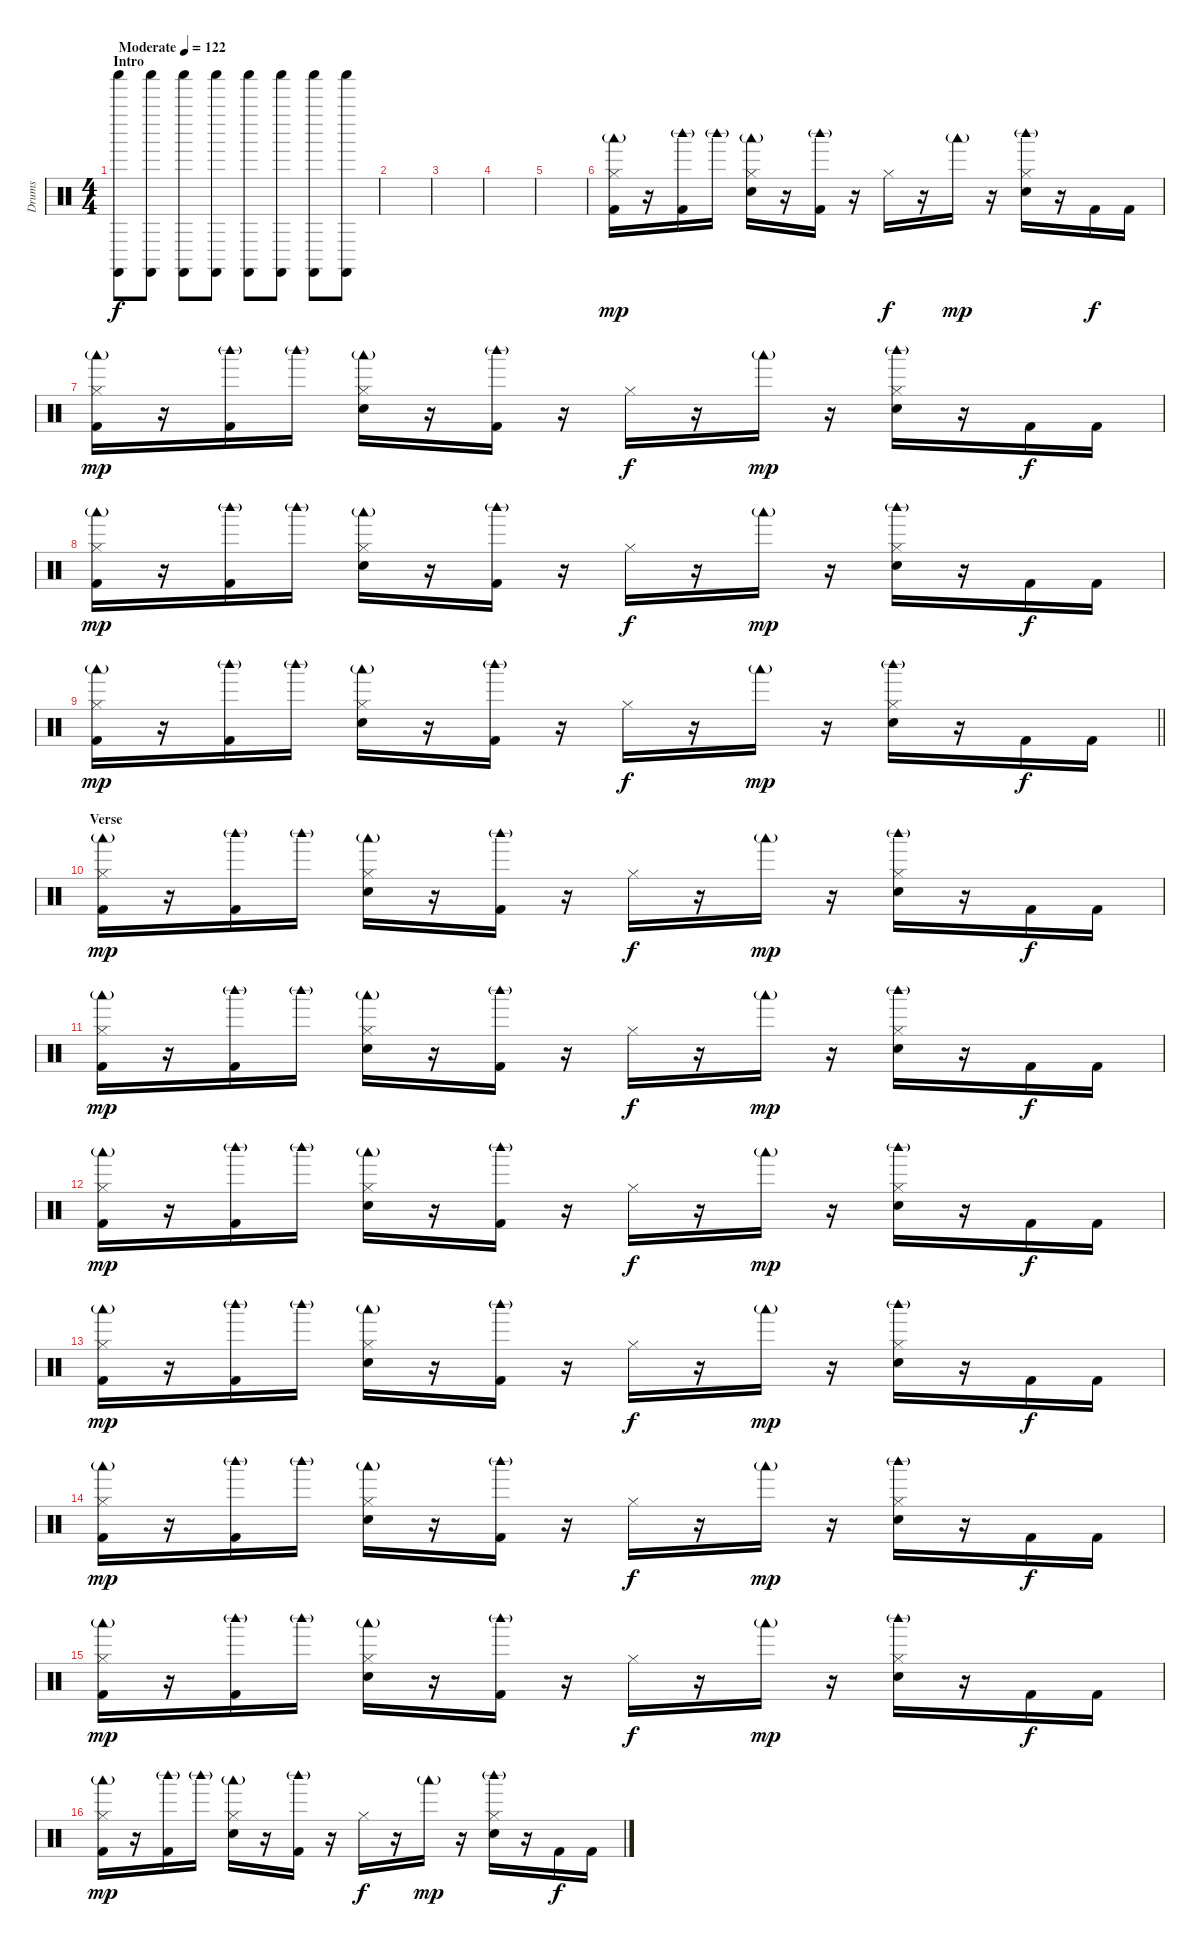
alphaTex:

\track ("Drums" "Drums") {instrument percussion}
\staff {score}
\articulation defaults
\ts (4 4)
\section ("" "Intro")
\tempo (122 "Moderate")
\clef neutral
\ks c
("Shaker (hit)" "Castanets (hit)").8{dy f} ("Shaker (hit)" "Castanets (hit)").8 ("Shaker (hit)" "Castanets (hit)").8 ("Shaker (hit)" "Castanets (hit)").8 ("Shaker (hit)" "Castanets (hit)").8 ("Shaker (hit)" "Castanets (hit)").8 ("Shaker (hit)" "Castanets (hit)").8 ("Shaker (hit)" "Castanets (hit)").8 |
|
|
|
|
("Hi-Hat (closed)" "Woodblock low (hit)"{g} "Kick (hit) 2").16{dy mp} r.16 ("Woodblock high (hit)"{g} "Kick (hit) 2").16 "Woodblock high (hit)"{g}.16 ("Hi-Hat (closed)" "Hand Clap (hit)" "Woodblock low (hit)"{g}).16 r.16 ("Woodblock high (hit)"{g} "Kick (hit) 2").16 r.16 "Hi-Hat (closed)".16{dy f} r.16 "Woodblock low (hit)"{g}.16{dy mp} r.16 ("Hi-Hat (closed)" "Hand Clap (hit)" "Woodblock high (hit)"{g}).16 r.16 "Kick (hit) 2".16{dy f} "Kick (hit) 2".16 |
("Hi-Hat (closed)" "Woodblock low (hit)"{g} "Kick (hit) 2").16{dy mp} r.16 ("Woodblock high (hit)"{g} "Kick (hit) 2").16 "Woodblock high (hit)"{g}.16 ("Hi-Hat (closed)" "Hand Clap (hit)" "Woodblock low (hit)"{g}).16 r.16 ("Woodblock high (hit)"{g} "Kick (hit) 2").16 r.16 "Hi-Hat (closed)".16{dy f} r.16 "Woodblock low (hit)"{g}.16{dy mp} r.16 ("Hi-Hat (closed)" "Hand Clap (hit)" "Woodblock high (hit)"{g}).16 r.16 "Kick (hit) 2".16{dy f} "Kick (hit) 2".16 |
("Hi-Hat (closed)" "Woodblock low (hit)"{g} "Kick (hit) 2").16{dy mp} r.16 ("Woodblock high (hit)"{g} "Kick (hit) 2").16 "Woodblock high (hit)"{g}.16 ("Hi-Hat (closed)" "Hand Clap (hit)" "Woodblock low (hit)"{g}).16 r.16 ("Woodblock high (hit)"{g} "Kick (hit) 2").16 r.16 "Hi-Hat (closed)".16{dy f} r.16 "Woodblock low (hit)"{g}.16{dy mp} r.16 ("Hi-Hat (closed)" "Hand Clap (hit)" "Woodblock high (hit)"{g}).16 r.16 "Kick (hit) 2".16{dy f} "Kick (hit) 2".16 |
\barLineRight lightlight
("Hi-Hat (closed)" "Woodblock low (hit)"{g} "Kick (hit) 2").16{dy mp} r.16 ("Woodblock high (hit)"{g} "Kick (hit) 2").16 "Woodblock high (hit)"{g}.16 ("Hi-Hat (closed)" "Hand Clap (hit)" "Woodblock low (hit)"{g}).16 r.16 ("Woodblock high (hit)"{g} "Kick (hit) 2").16 r.16 "Hi-Hat (closed)".16{dy f} r.16 "Woodblock low (hit)"{g}.16{dy mp} r.16 ("Hi-Hat (closed)" "Hand Clap (hit)" "Woodblock high (hit)"{g}).16 r.16 "Kick (hit) 2".16{dy f} "Kick (hit) 2".16 |
\section ("" "Verse")
("Hi-Hat (closed)" "Woodblock low (hit)"{g} "Kick (hit) 2").16{dy mp} r.16 ("Woodblock high (hit)"{g} "Kick (hit) 2").16 "Woodblock high (hit)"{g}.16 ("Hi-Hat (closed)" "Hand Clap (hit)" "Woodblock low (hit)"{g}).16 r.16 ("Woodblock high (hit)"{g} "Kick (hit) 2").16 r.16 "Hi-Hat (closed)".16{dy f} r.16 "Woodblock low (hit)"{g}.16{dy mp} r.16 ("Hi-Hat (closed)" "Hand Clap (hit)" "Woodblock high (hit)"{g}).16 r.16 "Kick (hit) 2".16{dy f} "Kick (hit) 2".16 |
("Hi-Hat (closed)" "Woodblock low (hit)"{g} "Kick (hit) 2").16{dy mp} r.16 ("Woodblock high (hit)"{g} "Kick (hit) 2").16 "Woodblock high (hit)"{g}.16 ("Hi-Hat (closed)" "Hand Clap (hit)" "Woodblock low (hit)"{g}).16 r.16 ("Woodblock high (hit)"{g} "Kick (hit) 2").16 r.16 "Hi-Hat (closed)".16{dy f} r.16 "Woodblock low (hit)"{g}.16{dy mp} r.16 ("Hi-Hat (closed)" "Hand Clap (hit)" "Woodblock high (hit)"{g}).16 r.16 "Kick (hit) 2".16{dy f} "Kick (hit) 2".16 |
("Hi-Hat (closed)" "Woodblock low (hit)"{g} "Kick (hit) 2").16{dy mp} r.16 ("Woodblock high (hit)"{g} "Kick (hit) 2").16 "Woodblock high (hit)"{g}.16 ("Hi-Hat (closed)" "Hand Clap (hit)" "Woodblock low (hit)"{g}).16 r.16 ("Woodblock high (hit)"{g} "Kick (hit) 2").16 r.16 "Hi-Hat (closed)".16{dy f} r.16 "Woodblock low (hit)"{g}.16{dy mp} r.16 ("Hi-Hat (closed)" "Hand Clap (hit)" "Woodblock high (hit)"{g}).16 r.16 "Kick (hit) 2".16{dy f} "Kick (hit) 2".16 |
("Hi-Hat (closed)" "Woodblock low (hit)"{g} "Kick (hit) 2").16{dy mp} r.16 ("Woodblock high (hit)"{g} "Kick (hit) 2").16 "Woodblock high (hit)"{g}.16 ("Hi-Hat (closed)" "Hand Clap (hit)" "Woodblock low (hit)"{g}).16 r.16 ("Woodblock high (hit)"{g} "Kick (hit) 2").16 r.16 "Hi-Hat (closed)".16{dy f} r.16 "Woodblock low (hit)"{g}.16{dy mp} r.16 ("Hi-Hat (closed)" "Hand Clap (hit)" "Woodblock high (hit)"{g}).16 r.16 "Kick (hit) 2".16{dy f} "Kick (hit) 2".16 |
("Hi-Hat (closed)" "Woodblock low (hit)"{g} "Kick (hit) 2").16{dy mp} r.16 ("Woodblock high (hit)"{g} "Kick (hit) 2").16 "Woodblock high (hit)"{g}.16 ("Hi-Hat (closed)" "Hand Clap (hit)" "Woodblock low (hit)"{g}).16 r.16 ("Woodblock high (hit)"{g} "Kick (hit) 2").16 r.16 "Hi-Hat (closed)".16{dy f} r.16 "Woodblock low (hit)"{g}.16{dy mp} r.16 ("Hi-Hat (closed)" "Hand Clap (hit)" "Woodblock high (hit)"{g}).16 r.16 "Kick (hit) 2".16{dy f} "Kick (hit) 2".16 |
("Hi-Hat (closed)" "Woodblock low (hit)"{g} "Kick (hit) 2").16{dy mp} r.16 ("Woodblock high (hit)"{g} "Kick (hit) 2").16 "Woodblock high (hit)"{g}.16 ("Hi-Hat (closed)" "Hand Clap (hit)" "Woodblock low (hit)"{g}).16 r.16 ("Woodblock high (hit)"{g} "Kick (hit) 2").16 r.16 "Hi-Hat (closed)".16{dy f} r.16 "Woodblock low (hit)"{g}.16{dy mp} r.16 ("Hi-Hat (closed)" "Hand Clap (hit)" "Woodblock high (hit)"{g}).16 r.16 "Kick (hit) 2".16{dy f} "Kick (hit) 2".16 |
("Hi-Hat (closed)" "Woodblock low (hit)"{g} "Kick (hit) 2").16{dy mp} r.16 ("Woodblock high (hit)"{g} "Kick (hit) 2").16 "Woodblock high (hit)"{g}.16 ("Hi-Hat (closed)" "Hand Clap (hit)" "Woodblock low (hit)"{g}).16 r.16 ("Woodblock high (hit)"{g} "Kick (hit) 2").16 r.16 "Hi-Hat (closed)".16{dy f} r.16 "Woodblock low (hit)"{g}.16{dy mp} r.16 ("Hi-Hat (closed)" "Hand Clap (hit)" "Woodblock high (hit)"{g}).16 r.16 "Kick (hit) 2".16{dy f} "Kick (hit) 2".16
